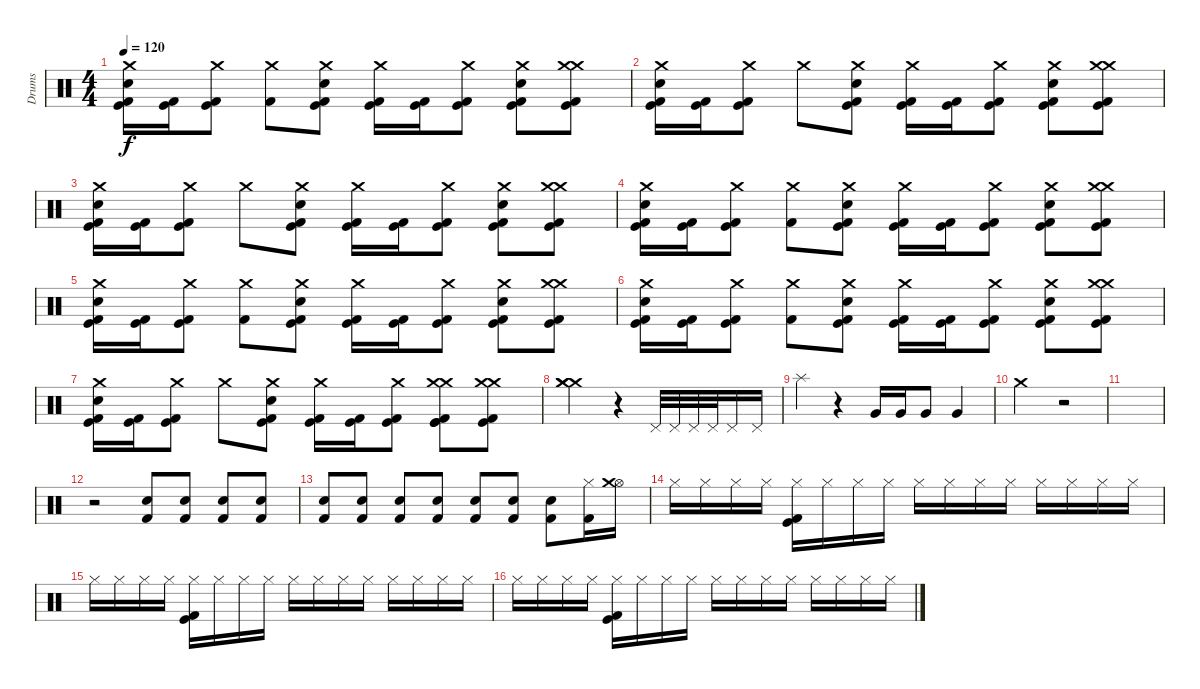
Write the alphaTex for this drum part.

\track ("Drums" "Drums") {instrument percussion}
\staff {score}
\articulation defaults
\ts (4 4)
\tempo 120
\clef neutral
\ks c
("Crash medium (hit)" "Snare (hit) 2" "Kick (hit)" "Kick (hit) 2").16{dy f} ("Kick (hit)" "Kick (hit) 2").16 ("Crash medium (hit)" "Kick (hit)" "Kick (hit) 2").8 ("Crash medium (hit)" "Kick (hit) 2").8 ("Crash medium (hit)" "Snare (hit) 2" "Kick (hit)" "Kick (hit) 2").8 ("Crash medium (hit)" "Kick (hit)" "Kick (hit) 2").16 ("Kick (hit)" "Kick (hit) 2").16 ("Crash medium (hit)" "Kick (hit)" "Kick (hit) 2").8 ("Crash medium (hit)" "Snare (hit) 2" "Kick (hit)" "Kick (hit) 2").8 ("Crash medium (hit)" "Crash medium (hit)" "Kick (hit)" "Kick (hit) 2").8 |
("Crash medium (hit)" "Snare (hit) 2" "Kick (hit)" "Kick (hit) 2").16 ("Kick (hit)" "Kick (hit) 2").16 ("Crash medium (hit)" "Kick (hit)" "Kick (hit) 2").8 "Crash medium (hit)".8 ("Crash medium (hit)" "Snare (hit) 2" "Kick (hit)" "Kick (hit) 2").8 ("Crash medium (hit)" "Kick (hit)" "Kick (hit) 2").16 ("Kick (hit)" "Kick (hit) 2").16 ("Crash medium (hit)" "Kick (hit)" "Kick (hit) 2").8 ("Crash medium (hit)" "Snare (hit) 2" "Kick (hit)" "Kick (hit) 2").8 ("Crash medium (hit)" "Crash medium (hit)" "Kick (hit)" "Kick (hit) 2").8 |
("Crash medium (hit)" "Snare (hit) 2" "Kick (hit)" "Kick (hit) 2").16 ("Kick (hit)" "Kick (hit) 2").16 ("Crash medium (hit)" "Kick (hit)" "Kick (hit) 2").8 "Crash medium (hit)".8 ("Crash medium (hit)" "Snare (hit) 2" "Kick (hit)" "Kick (hit) 2").8 ("Crash medium (hit)" "Kick (hit)" "Kick (hit) 2").16 ("Kick (hit)" "Kick (hit) 2").16 ("Crash medium (hit)" "Kick (hit)" "Kick (hit) 2").8 ("Crash medium (hit)" "Snare (hit) 2" "Kick (hit)" "Kick (hit) 2").8 ("Crash medium (hit)" "Crash medium (hit)" "Kick (hit)" "Kick (hit) 2").8 |
("Crash medium (hit)" "Snare (hit) 2" "Kick (hit)" "Kick (hit) 2").16 ("Kick (hit)" "Kick (hit) 2").16 ("Crash medium (hit)" "Kick (hit)" "Kick (hit) 2").8 ("Crash medium (hit)" "Kick (hit) 2").8 ("Crash medium (hit)" "Snare (hit) 2" "Kick (hit)" "Kick (hit) 2").8 ("Crash medium (hit)" "Kick (hit)" "Kick (hit) 2").16 ("Kick (hit)" "Kick (hit) 2").16 ("Crash medium (hit)" "Kick (hit)" "Kick (hit) 2").8 ("Crash medium (hit)" "Snare (hit) 2" "Kick (hit)" "Kick (hit) 2").8 ("Crash medium (hit)" "Crash medium (hit)" "Kick (hit)" "Kick (hit) 2").8 |
("Crash medium (hit)" "Snare (hit) 2" "Kick (hit)" "Kick (hit) 2").16 ("Kick (hit)" "Kick (hit) 2").16 ("Crash medium (hit)" "Kick (hit)" "Kick (hit) 2").8 ("Crash medium (hit)" "Kick (hit) 2").8 ("Crash medium (hit)" "Snare (hit) 2" "Kick (hit)" "Kick (hit) 2").8 ("Crash medium (hit)" "Kick (hit)" "Kick (hit) 2").16 ("Kick (hit)" "Kick (hit) 2").16 ("Crash medium (hit)" "Kick (hit)" "Kick (hit) 2").8 ("Crash medium (hit)" "Snare (hit) 2" "Kick (hit)" "Kick (hit) 2").8 ("Crash medium (hit)" "Crash medium (hit)" "Kick (hit)" "Kick (hit) 2").8 |
("Crash medium (hit)" "Snare (hit) 2" "Kick (hit)" "Kick (hit) 2").16 ("Kick (hit)" "Kick (hit) 2").16 ("Crash medium (hit)" "Kick (hit)" "Kick (hit) 2").8 ("Crash medium (hit)" "Kick (hit) 2").8 ("Crash medium (hit)" "Snare (hit) 2" "Kick (hit)" "Kick (hit) 2").8 ("Crash medium (hit)" "Kick (hit)" "Kick (hit) 2").16 ("Kick (hit)" "Kick (hit) 2").16 ("Crash medium (hit)" "Kick (hit)" "Kick (hit) 2").8 ("Crash medium (hit)" "Snare (hit) 2" "Kick (hit)" "Kick (hit) 2").8 ("Crash medium (hit)" "Crash medium (hit)" "Kick (hit)" "Kick (hit) 2").8 |
("Crash medium (hit)" "Snare (hit) 2" "Kick (hit)" "Kick (hit) 2").16 ("Kick (hit)" "Kick (hit) 2").16 ("Crash medium (hit)" "Kick (hit)" "Kick (hit) 2").8 "Crash medium (hit)".8 ("Crash medium (hit)" "Snare (hit) 2" "Kick (hit)" "Kick (hit) 2").8 ("Crash medium (hit)" "Kick (hit)" "Kick (hit) 2").16 ("Kick (hit)" "Kick (hit) 2").16 ("Crash medium (hit)" "Kick (hit)" "Kick (hit) 2").8 ("Crash medium (hit)" "Crash medium (hit)" "Kick (hit)" "Kick (hit)" "Kick (hit) 2").8 ("Crash medium (hit)" "Crash medium (hit)" "Kick (hit)" "Kick (hit) 2").8 |
("Crash medium (hit)" "Crash medium (hit)" "Crash medium (hit)").2 r.4 "Pedal Hi-Hat (hit)".32 "Pedal Hi-Hat (hit)".32 "Pedal Hi-Hat (hit)".32 "Pedal Hi-Hat (hit)".32 "Pedal Hi-Hat (hit)".16 "Pedal Hi-Hat (hit)".16 |
"Splash (hit)".4 r.4 "Very Low Tom (hit)".16 "Very Low Tom (hit)".16 "Very Low Tom (hit)".8 "Very Low Tom (hit)".4 |
"Crash medium (hit)".2 r.2 |
|
r.2 ("Kick (hit) 2" "Snare (hit) 2").8{volume 4} ("Snare (hit) 2" "Kick (hit) 2").8 ("Kick (hit) 2" "Snare (hit) 2").8{volume 7} ("Snare (hit) 2" "Kick (hit) 2").8 |
("Snare (hit) 2" "Kick (hit) 2").8{volume 10} ("Snare (hit) 2" "Kick (hit) 2").8 ("Snare (hit) 2" "Kick (hit) 2").8 ("Snare (hit) 2" "Kick (hit) 2").8{volume 12} ("Snare (hit) 2" "Kick (hit) 2").8 ("Snare (hit) 2" "Kick (hit) 2").8 ("Snare (hit) 2" "Kick (hit) 2").8{volume 16} ("Hi-Hat (closed)" "Kick (hit) 2").16 ("Hi-Hat (open)" "Crash medium (hit)").16 |
"Hi-Hat (closed)".16 "Hi-Hat (closed)".16 "Hi-Hat (closed)".16 "Hi-Hat (closed)".16 ("Hi-Hat (closed)" "Kick (hit)" "Kick (hit) 2").16 "Hi-Hat (closed)".16 "Hi-Hat (closed)".16 "Hi-Hat (closed)".16 "Hi-Hat (closed)".16 "Hi-Hat (closed)".16 "Hi-Hat (closed)".16 "Hi-Hat (closed)".16 "Hi-Hat (closed)".16 "Hi-Hat (closed)".16 "Hi-Hat (closed)".16 "Hi-Hat (closed)".16 |
"Hi-Hat (closed)".16 "Hi-Hat (closed)".16 "Hi-Hat (closed)".16 "Hi-Hat (closed)".16 ("Hi-Hat (closed)" "Kick (hit)" "Kick (hit) 2").16 "Hi-Hat (closed)".16 "Hi-Hat (closed)".16 "Hi-Hat (closed)".16 "Hi-Hat (closed)".16 "Hi-Hat (closed)".16 "Hi-Hat (closed)".16 "Hi-Hat (closed)".16 "Hi-Hat (closed)".16 "Hi-Hat (closed)".16 "Hi-Hat (closed)".16 "Hi-Hat (closed)".16 |
"Hi-Hat (closed)".16 "Hi-Hat (closed)".16 "Hi-Hat (closed)".16 "Hi-Hat (closed)".16 ("Hi-Hat (closed)" "Kick (hit)" "Kick (hit) 2").16 "Hi-Hat (closed)".16 "Hi-Hat (closed)".16 "Hi-Hat (closed)".16 "Hi-Hat (closed)".16 "Hi-Hat (closed)".16 "Hi-Hat (closed)".16 "Hi-Hat (closed)".16 "Hi-Hat (closed)".16 "Hi-Hat (closed)".16 "Hi-Hat (closed)".16 "Hi-Hat (closed)".16
